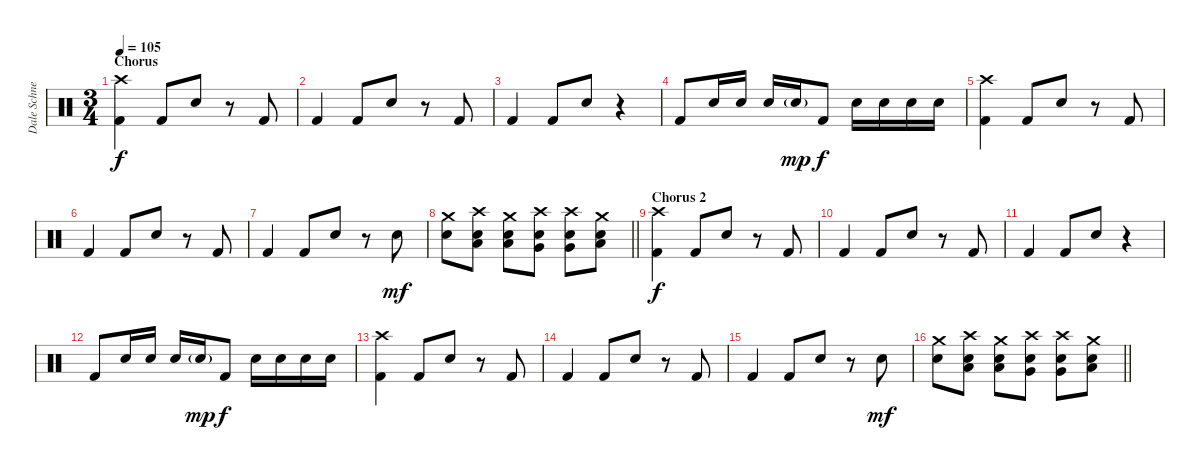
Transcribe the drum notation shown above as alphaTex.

\track ("Dale Schnettler (Drums)" "Dale Schne") {instrument percussion}
\staff {score}
\articulation defaults
\ts (3 4)
\section ("" "Chorus")
\tempo 105
\clef neutral
\ks c
("Crash high (hit)" "Kick (hit) 2").4{dy f} "Kick (hit) 2".8 "Electric Snare (hit)".8 r.8 "Kick (hit) 2".8 |
"Kick (hit) 2".4 "Kick (hit) 2".8 "Electric Snare (hit)".8 r.8 "Kick (hit) 2".8 |
"Kick (hit) 2".4 "Kick (hit) 2".8 "Electric Snare (hit)".8 r.4 |
"Kick (hit) 2".8 "Electric Snare (hit)".16 "Electric Snare (hit)".16 "Electric Snare (hit)".16 "Electric Snare (hit)"{g}.16{dy mp} "Kick (hit) 2".8{dy f} "Electric Snare (hit)".16 "Electric Snare (hit)".16 "Electric Snare (hit)".16 "Electric Snare (hit)".16 |
("Crash high (hit)" "Kick (hit) 2").4 "Kick (hit) 2".8 "Electric Snare (hit)".8 r.8 "Kick (hit) 2".8 |
"Kick (hit) 2".4 "Kick (hit) 2".8 "Electric Snare (hit)".8 r.8 "Kick (hit) 2".8 |
"Kick (hit) 2".4 "Kick (hit) 2".8 "Electric Snare (hit)".8 r.8 "Electric Snare (hit)".8{dy mf} |
\barLineRight lightlight
("Crash medium (hit)" "Electric Snare (hit)").8 ("Crash high (hit)" "Electric Snare (hit)" "Low Tom (hit)").8 ("Crash medium (hit)" "Electric Snare (hit)" "Low Tom (hit)").8 ("Crash high (hit)" "Electric Snare (hit)" "Very Low Tom (hit)").8 ("Crash high (hit)" "Electric Snare (hit)" "Very Low Tom (hit)").8 ("Crash medium (hit)" "Electric Snare (hit)" "Low Floor Tom (hit)").8 |
\section ("" "Chorus 2")
("Crash high (hit)" "Kick (hit) 2").4{dy f} "Kick (hit) 2".8 "Electric Snare (hit)".8 r.8 "Kick (hit) 2".8 |
"Kick (hit) 2".4 "Kick (hit) 2".8 "Electric Snare (hit)".8 r.8 "Kick (hit) 2".8 |
"Kick (hit) 2".4 "Kick (hit) 2".8 "Electric Snare (hit)".8 r.4 |
"Kick (hit) 2".8 "Electric Snare (hit)".16 "Electric Snare (hit)".16 "Electric Snare (hit)".16 "Electric Snare (hit)"{g}.16{dy mp} "Kick (hit) 2".8{dy f} "Electric Snare (hit)".16 "Electric Snare (hit)".16 "Electric Snare (hit)".16 "Electric Snare (hit)".16 |
("Crash high (hit)" "Kick (hit) 2").4 "Kick (hit) 2".8 "Electric Snare (hit)".8 r.8 "Kick (hit) 2".8 |
"Kick (hit) 2".4 "Kick (hit) 2".8 "Electric Snare (hit)".8 r.8 "Kick (hit) 2".8 |
"Kick (hit) 2".4 "Kick (hit) 2".8 "Electric Snare (hit)".8 r.8 "Electric Snare (hit)".8{dy mf} |
\barLineRight lightlight
("Crash medium (hit)" "Electric Snare (hit)").8 ("Crash high (hit)" "Electric Snare (hit)" "Low Tom (hit)").8 ("Crash medium (hit)" "Electric Snare (hit)" "Low Tom (hit)").8 ("Crash high (hit)" "Electric Snare (hit)" "Very Low Tom (hit)").8 ("Crash high (hit)" "Electric Snare (hit)" "Very Low Tom (hit)").8 ("Crash medium (hit)" "Electric Snare (hit)" "Low Floor Tom (hit)").8
